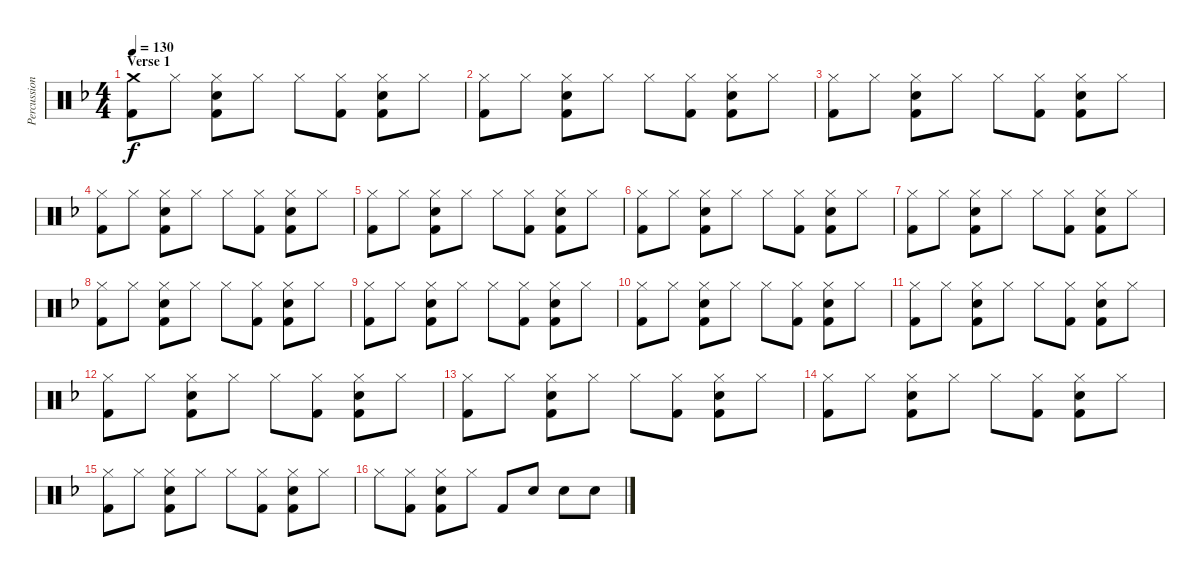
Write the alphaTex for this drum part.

\track ("Percussion" "Percussion") {instrument percussion}
\staff {score}
\articulation defaults
\ts (4 4)
\section ("" "Verse 1")
\tempo 130
\clef neutral
\ks f
("Crash medium (hit)" "Kick (hit) 2").8{dy f} "Hi-Hat (closed)".8 ("Hi-Hat (closed)" "Snare (hit) 2" "Kick (hit) 2").8 "Hi-Hat (closed)".8 "Hi-Hat (closed)".8 ("Hi-Hat (closed)" "Kick (hit) 2").8 ("Hi-Hat (closed)" "Snare (hit) 2" "Kick (hit) 2").8 "Hi-Hat (closed)".8 |
("Hi-Hat (closed)" "Kick (hit) 2").8 "Hi-Hat (closed)".8 ("Hi-Hat (closed)" "Snare (hit) 2" "Kick (hit) 2").8 "Hi-Hat (closed)".8 "Hi-Hat (closed)".8 ("Hi-Hat (closed)" "Kick (hit) 2").8 ("Hi-Hat (closed)" "Snare (hit) 2" "Kick (hit) 2").8 "Hi-Hat (closed)".8 |
("Hi-Hat (closed)" "Kick (hit) 2").8 "Hi-Hat (closed)".8 ("Hi-Hat (closed)" "Snare (hit) 2" "Kick (hit) 2").8 "Hi-Hat (closed)".8 "Hi-Hat (closed)".8 ("Hi-Hat (closed)" "Kick (hit) 2").8 ("Hi-Hat (closed)" "Snare (hit) 2" "Kick (hit) 2").8 "Hi-Hat (closed)".8 |
("Hi-Hat (closed)" "Kick (hit) 2").8 "Hi-Hat (closed)".8 ("Hi-Hat (closed)" "Snare (hit) 2" "Kick (hit) 2").8 "Hi-Hat (closed)".8 "Hi-Hat (closed)".8 ("Hi-Hat (closed)" "Kick (hit) 2").8 ("Hi-Hat (closed)" "Snare (hit) 2" "Kick (hit) 2").8 "Hi-Hat (closed)".8 |
("Hi-Hat (closed)" "Kick (hit) 2").8 "Hi-Hat (closed)".8 ("Hi-Hat (closed)" "Snare (hit) 2" "Kick (hit) 2").8 "Hi-Hat (closed)".8 "Hi-Hat (closed)".8 ("Hi-Hat (closed)" "Kick (hit) 2").8 ("Hi-Hat (closed)" "Snare (hit) 2" "Kick (hit) 2").8 "Hi-Hat (closed)".8 |
("Hi-Hat (closed)" "Kick (hit) 2").8 "Hi-Hat (closed)".8 ("Hi-Hat (closed)" "Snare (hit) 2" "Kick (hit) 2").8 "Hi-Hat (closed)".8 "Hi-Hat (closed)".8 ("Hi-Hat (closed)" "Kick (hit) 2").8 ("Hi-Hat (closed)" "Snare (hit) 2" "Kick (hit) 2").8 "Hi-Hat (closed)".8 |
("Hi-Hat (closed)" "Kick (hit) 2").8 "Hi-Hat (closed)".8 ("Hi-Hat (closed)" "Snare (hit) 2" "Kick (hit) 2").8 "Hi-Hat (closed)".8 "Hi-Hat (closed)".8 ("Hi-Hat (closed)" "Kick (hit) 2").8 ("Hi-Hat (closed)" "Snare (hit) 2" "Kick (hit) 2").8 "Hi-Hat (closed)".8 |
("Hi-Hat (closed)" "Kick (hit) 2").8 "Hi-Hat (closed)".8 ("Hi-Hat (closed)" "Snare (hit) 2" "Kick (hit) 2").8 "Hi-Hat (closed)".8 "Hi-Hat (closed)".8 ("Hi-Hat (closed)" "Kick (hit) 2").8 ("Hi-Hat (closed)" "Snare (hit) 2" "Kick (hit) 2").8 "Hi-Hat (closed)".8 |
("Hi-Hat (closed)" "Kick (hit) 2").8 "Hi-Hat (closed)".8 ("Hi-Hat (closed)" "Snare (hit) 2" "Kick (hit) 2").8 "Hi-Hat (closed)".8 "Hi-Hat (closed)".8 ("Hi-Hat (closed)" "Kick (hit) 2").8 ("Hi-Hat (closed)" "Snare (hit) 2" "Kick (hit) 2").8 "Hi-Hat (closed)".8 |
("Hi-Hat (closed)" "Kick (hit) 2").8 "Hi-Hat (closed)".8 ("Hi-Hat (closed)" "Snare (hit) 2" "Kick (hit) 2").8 "Hi-Hat (closed)".8 "Hi-Hat (closed)".8 ("Hi-Hat (closed)" "Kick (hit) 2").8 ("Hi-Hat (closed)" "Snare (hit) 2" "Kick (hit) 2").8 "Hi-Hat (closed)".8 |
("Hi-Hat (closed)" "Kick (hit) 2").8 "Hi-Hat (closed)".8 ("Hi-Hat (closed)" "Snare (hit) 2" "Kick (hit) 2").8 "Hi-Hat (closed)".8 "Hi-Hat (closed)".8 ("Hi-Hat (closed)" "Kick (hit) 2").8 ("Hi-Hat (closed)" "Snare (hit) 2" "Kick (hit) 2").8 "Hi-Hat (closed)".8 |
("Hi-Hat (closed)" "Kick (hit) 2").8 "Hi-Hat (closed)".8 ("Hi-Hat (closed)" "Snare (hit) 2" "Kick (hit) 2").8 "Hi-Hat (closed)".8 "Hi-Hat (closed)".8 ("Hi-Hat (closed)" "Kick (hit) 2").8 ("Hi-Hat (closed)" "Snare (hit) 2" "Kick (hit) 2").8 "Hi-Hat (closed)".8 |
("Hi-Hat (closed)" "Kick (hit) 2").8 "Hi-Hat (closed)".8 ("Hi-Hat (closed)" "Snare (hit) 2" "Kick (hit) 2").8 "Hi-Hat (closed)".8 "Hi-Hat (closed)".8 ("Hi-Hat (closed)" "Kick (hit) 2").8 ("Hi-Hat (closed)" "Snare (hit) 2" "Kick (hit) 2").8 "Hi-Hat (closed)".8 |
("Hi-Hat (closed)" "Kick (hit) 2").8 "Hi-Hat (closed)".8 ("Hi-Hat (closed)" "Snare (hit) 2" "Kick (hit) 2").8 "Hi-Hat (closed)".8 "Hi-Hat (closed)".8 ("Hi-Hat (closed)" "Kick (hit) 2").8 ("Hi-Hat (closed)" "Snare (hit) 2" "Kick (hit) 2").8 "Hi-Hat (closed)".8 |
("Hi-Hat (closed)" "Kick (hit) 2").8 "Hi-Hat (closed)".8 ("Hi-Hat (closed)" "Snare (hit) 2" "Kick (hit) 2").8 "Hi-Hat (closed)".8 "Hi-Hat (closed)".8 ("Hi-Hat (closed)" "Kick (hit) 2").8 ("Hi-Hat (closed)" "Snare (hit) 2" "Kick (hit) 2").8 "Hi-Hat (closed)".8 |
"Hi-Hat (closed)".8 ("Hi-Hat (closed)" "Kick (hit) 2").8 ("Hi-Hat (closed)" "Snare (hit) 2" "Kick (hit) 2").8 "Hi-Hat (closed)".8 "Kick (hit) 2".8 "Snare (hit) 2".8 "Snare (hit) 2".8 "Snare (hit) 2".8
